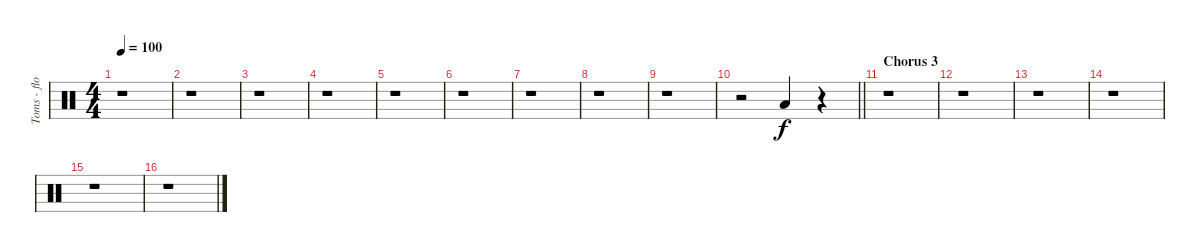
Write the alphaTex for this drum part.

\track ("Toms - floor" "Toms - flo") {instrument percussion}
\staff {score}
\articulation defaults
\ts (4 4)
\tempo 100
\clef neutral
\ks c
r.1{dy f} |
r.1 |
r.1 |
r.1 |
r.1 |
r.1 |
r.1 |
r.1 |
r.1 |
\barLineRight lightlight
r.2 "Low Tom (hit)".4 r.4 |
\section ("" "Chorus 3")
r.1 |
r.1 |
r.1 |
r.1 |
r.1 |
r.1
